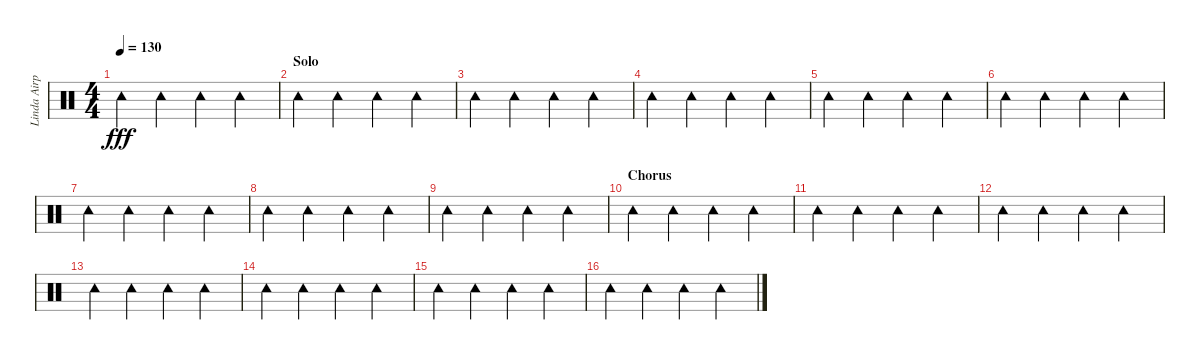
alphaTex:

\track ("Linda Airplane" "Linda Airp") {instrument percussion}
\staff {score}
\articulation defaults
\ts (4 4)
\tempo 130
\clef neutral
\ks c "Tambourine (hit)".4{dy fff} "Tambourine (hit)".4 "Tambourine (hit)".4 "Tambourine (hit)".4
|
\section ("" "Solo")
"Tambourine (hit)".4 "Tambourine (hit)".4 "Tambourine (hit)".4 "Tambourine (hit)".4 |
"Tambourine (hit)".4 "Tambourine (hit)".4 "Tambourine (hit)".4 "Tambourine (hit)".4 |
"Tambourine (hit)".4 "Tambourine (hit)".4 "Tambourine (hit)".4 "Tambourine (hit)".4 |
"Tambourine (hit)".4 "Tambourine (hit)".4 "Tambourine (hit)".4 "Tambourine (hit)".4 |
"Tambourine (hit)".4 "Tambourine (hit)".4 "Tambourine (hit)".4 "Tambourine (hit)".4 |
"Tambourine (hit)".4 "Tambourine (hit)".4 "Tambourine (hit)".4 "Tambourine (hit)".4 |
"Tambourine (hit)".4 "Tambourine (hit)".4 "Tambourine (hit)".4 "Tambourine (hit)".4 |
"Tambourine (hit)".4 "Tambourine (hit)".4 "Tambourine (hit)".4 "Tambourine (hit)".4 |
\section ("" "Chorus")
"Tambourine (hit)".4 "Tambourine (hit)".4 "Tambourine (hit)".4 "Tambourine (hit)".4 |
"Tambourine (hit)".4 "Tambourine (hit)".4 "Tambourine (hit)".4 "Tambourine (hit)".4 |
"Tambourine (hit)".4 "Tambourine (hit)".4 "Tambourine (hit)".4 "Tambourine (hit)".4 |
"Tambourine (hit)".4 "Tambourine (hit)".4 "Tambourine (hit)".4 "Tambourine (hit)".4 |
"Tambourine (hit)".4 "Tambourine (hit)".4 "Tambourine (hit)".4 "Tambourine (hit)".4 |
"Tambourine (hit)".4 "Tambourine (hit)".4 "Tambourine (hit)".4 "Tambourine (hit)".4 |
"Tambourine (hit)".4 "Tambourine (hit)".4 "Tambourine (hit)".4 "Tambourine (hit)".4
